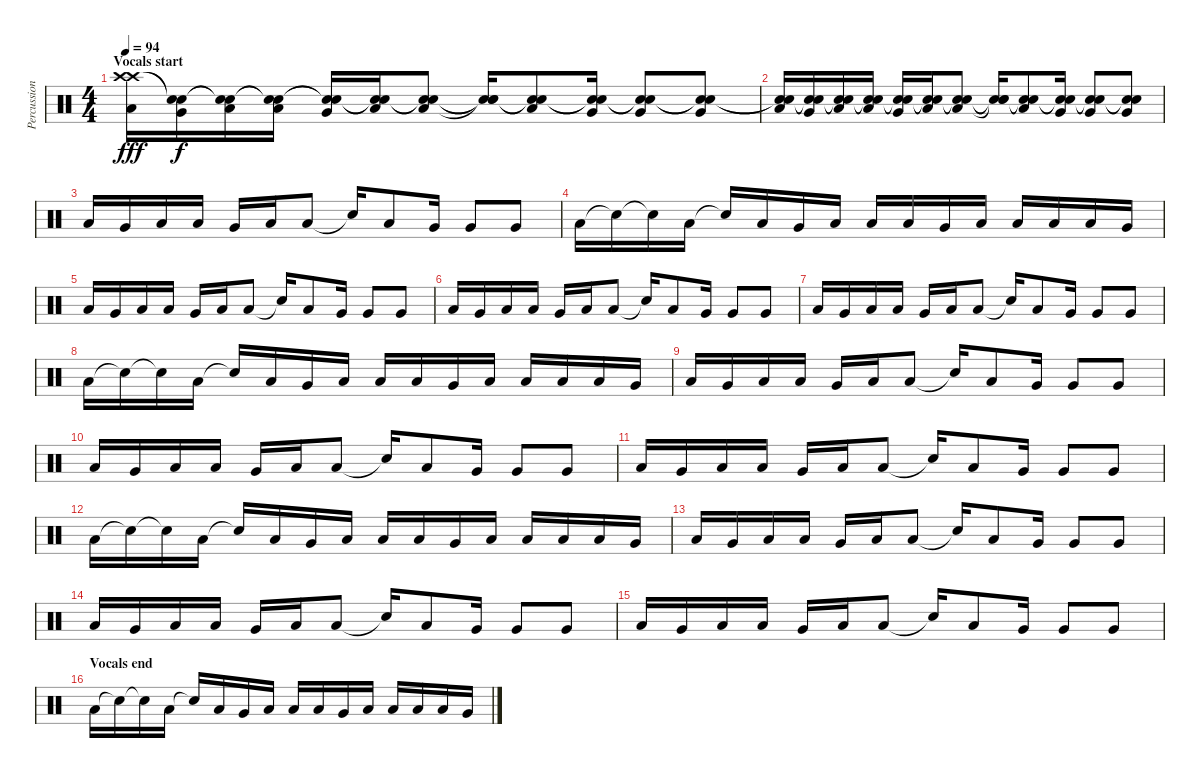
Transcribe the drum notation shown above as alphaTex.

\track ("Percussion" "Percussion") {instrument percussion}
\staff {score}
\articulation defaults
\ts (4 4)
\section ("" "Vocals start")
\tempo 94
\clef neutral
\ks c
("Crash high (hit)" "Crash high (hit)" "Low Floor Tom (hit)").16{dy fff} ("Snare (hit)"{t} "Snare (hit)"{t} "Very Low Tom (hit)").16{dy f} ("Snare (hit)"{t} "Snare (hit)"{t} "Low Floor Tom (hit)").16 ("Snare (hit)"{t} "Snare (hit)"{t} "Low Floor Tom (hit)").16 ("Snare (hit)"{t} "Snare (hit)"{t} "Very Low Tom (hit)").16 ("Snare (hit)"{t} "Snare (hit)"{t} "Low Floor Tom (hit)").16 ("Snare (hit)"{t} "Snare (hit)"{t} "Low Floor Tom (hit)").8 ("Snare (hit)"{t} "Snare (hit)"{t} "Snare (hit)"{t}).16 ("Snare (hit)"{t} "Snare (hit)"{t} "Low Floor Tom (hit)").8 ("Snare (hit)"{t} "Snare (hit)"{t} "Very Low Tom (hit)").16 ("Snare (hit)"{t} "Snare (hit)"{t} "Very Low Tom (hit)").8 ("Snare (hit)"{t} "Snare (hit)"{t} "Very Low Tom (hit)").8 |
("Snare (hit)"{t} "Snare (hit)"{t} "Low Floor Tom (hit)").16 ("Snare (hit)"{t} "Snare (hit)"{t} "Very Low Tom (hit)").16 ("Snare (hit)"{t} "Snare (hit)"{t} "Low Floor Tom (hit)").16 ("Snare (hit)"{t} "Snare (hit)"{t} "Low Floor Tom (hit)").16 ("Snare (hit)"{t} "Snare (hit)"{t} "Very Low Tom (hit)").16 ("Snare (hit)"{t} "Snare (hit)"{t} "Low Floor Tom (hit)").16 ("Snare (hit)"{t} "Snare (hit)"{t} "Low Floor Tom (hit)").8 ("Snare (hit)"{t} "Snare (hit)"{t} "Snare (hit)"{t}).16 ("Snare (hit)"{t} "Snare (hit)"{t} "Low Floor Tom (hit)").8 ("Snare (hit)"{t} "Snare (hit)"{t} "Very Low Tom (hit)").16 ("Snare (hit)"{t} "Snare (hit)"{t} "Very Low Tom (hit)").8 ("Snare (hit)"{t} "Snare (hit)"{t} "Very Low Tom (hit)").8 |
"Low Floor Tom (hit)".16 "Very Low Tom (hit)".16 "Low Floor Tom (hit)".16 "Low Floor Tom (hit)".16 "Very Low Tom (hit)".16 "Low Floor Tom (hit)".16 "Low Floor Tom (hit)".8 "Snare (hit)"{t}.16 "Low Floor Tom (hit)".8 "Very Low Tom (hit)".16 "Very Low Tom (hit)".8 "Very Low Tom (hit)".8 |
"Low Floor Tom (hit)".16 "Snare (hit)"{t}.16 "Snare (hit)"{t}.16 "Low Floor Tom (hit)".16 "Snare (hit)"{t}.16 "Low Floor Tom (hit)".16 "Very Low Tom (hit)".16 "Low Floor Tom (hit)".16 "Low Floor Tom (hit)".16 "Low Tom (hit)".16 "Very Low Tom (hit)".16 "Low Floor Tom (hit)".16 "Low Tom (hit)".16 "Low Floor Tom (hit)".16 "Low Tom (hit)".16 "Very Low Tom (hit)".16 |
"Low Floor Tom (hit)".16 "Very Low Tom (hit)".16 "Low Floor Tom (hit)".16 "Low Floor Tom (hit)".16 "Very Low Tom (hit)".16 "Low Floor Tom (hit)".16 "Low Floor Tom (hit)".8 "Snare (hit)"{t}.16 "Low Floor Tom (hit)".8 "Very Low Tom (hit)".16 "Very Low Tom (hit)".8 "Very Low Tom (hit)".8 |
"Low Floor Tom (hit)".16 "Very Low Tom (hit)".16 "Low Floor Tom (hit)".16 "Low Floor Tom (hit)".16 "Very Low Tom (hit)".16 "Low Floor Tom (hit)".16 "Low Floor Tom (hit)".8 "Snare (hit)"{t}.16 "Low Floor Tom (hit)".8 "Very Low Tom (hit)".16 "Very Low Tom (hit)".8 "Very Low Tom (hit)".8 |
"Low Floor Tom (hit)".16 "Very Low Tom (hit)".16 "Low Floor Tom (hit)".16 "Low Floor Tom (hit)".16 "Very Low Tom (hit)".16 "Low Floor Tom (hit)".16 "Low Floor Tom (hit)".8 "Snare (hit)"{t}.16 "Low Floor Tom (hit)".8 "Very Low Tom (hit)".16 "Very Low Tom (hit)".8 "Very Low Tom (hit)".8 |
"Low Floor Tom (hit)".16 "Snare (hit)"{t}.16 "Snare (hit)"{t}.16 "Low Floor Tom (hit)".16 "Snare (hit)"{t}.16 "Low Floor Tom (hit)".16 "Very Low Tom (hit)".16 "Low Floor Tom (hit)".16 "Low Floor Tom (hit)".16 "Low Tom (hit)".16 "Very Low Tom (hit)".16 "Low Floor Tom (hit)".16 "Low Tom (hit)".16 "Low Floor Tom (hit)".16 "Low Tom (hit)".16 "Very Low Tom (hit)".16 |
"Low Floor Tom (hit)".16 "Very Low Tom (hit)".16 "Low Floor Tom (hit)".16 "Low Floor Tom (hit)".16 "Very Low Tom (hit)".16 "Low Floor Tom (hit)".16 "Low Floor Tom (hit)".8 "Snare (hit)"{t}.16 "Low Floor Tom (hit)".8 "Very Low Tom (hit)".16 "Very Low Tom (hit)".8 "Very Low Tom (hit)".8 |
"Low Floor Tom (hit)".16 "Very Low Tom (hit)".16 "Low Floor Tom (hit)".16 "Low Floor Tom (hit)".16 "Very Low Tom (hit)".16 "Low Floor Tom (hit)".16 "Low Floor Tom (hit)".8 "Snare (hit)"{t}.16 "Low Floor Tom (hit)".8 "Very Low Tom (hit)".16 "Very Low Tom (hit)".8 "Very Low Tom (hit)".8 |
"Low Floor Tom (hit)".16 "Very Low Tom (hit)".16 "Low Floor Tom (hit)".16 "Low Floor Tom (hit)".16 "Very Low Tom (hit)".16 "Low Floor Tom (hit)".16 "Low Floor Tom (hit)".8 "Snare (hit)"{t}.16 "Low Floor Tom (hit)".8 "Very Low Tom (hit)".16 "Very Low Tom (hit)".8 "Very Low Tom (hit)".8 |
"Low Floor Tom (hit)".16 "Snare (hit)"{t}.16 "Snare (hit)"{t}.16 "Low Floor Tom (hit)".16 "Snare (hit)"{t}.16 "Low Floor Tom (hit)".16 "Very Low Tom (hit)".16 "Low Floor Tom (hit)".16 "Low Floor Tom (hit)".16 "Low Tom (hit)".16 "Very Low Tom (hit)".16 "Low Floor Tom (hit)".16 "Low Tom (hit)".16 "Low Floor Tom (hit)".16 "Low Tom (hit)".16 "Very Low Tom (hit)".16 |
"Low Floor Tom (hit)".16 "Very Low Tom (hit)".16 "Low Floor Tom (hit)".16 "Low Floor Tom (hit)".16 "Very Low Tom (hit)".16 "Low Floor Tom (hit)".16 "Low Floor Tom (hit)".8 "Snare (hit)"{t}.16 "Low Floor Tom (hit)".8 "Very Low Tom (hit)".16 "Very Low Tom (hit)".8 "Very Low Tom (hit)".8 |
"Low Floor Tom (hit)".16 "Very Low Tom (hit)".16 "Low Floor Tom (hit)".16 "Low Floor Tom (hit)".16 "Very Low Tom (hit)".16 "Low Floor Tom (hit)".16 "Low Floor Tom (hit)".8 "Snare (hit)"{t}.16 "Low Floor Tom (hit)".8 "Very Low Tom (hit)".16 "Very Low Tom (hit)".8 "Very Low Tom (hit)".8 |
"Low Floor Tom (hit)".16 "Very Low Tom (hit)".16 "Low Floor Tom (hit)".16 "Low Floor Tom (hit)".16 "Very Low Tom (hit)".16 "Low Floor Tom (hit)".16 "Low Floor Tom (hit)".8 "Snare (hit)"{t}.16 "Low Floor Tom (hit)".8 "Very Low Tom (hit)".16 "Very Low Tom (hit)".8 "Very Low Tom (hit)".8 |
\section ("" "Vocals end")
"Low Floor Tom (hit)".16 "Snare (hit)"{t}.16 "Snare (hit)"{t}.16 "Low Floor Tom (hit)".16 "Snare (hit)"{t}.16 "Low Floor Tom (hit)".16 "Very Low Tom (hit)".16 "Low Floor Tom (hit)".16 "Low Floor Tom (hit)".16 "Low Tom (hit)".16 "Very Low Tom (hit)".16 "Low Floor Tom (hit)".16 "Low Tom (hit)".16 "Low Floor Tom (hit)".16 "Low Tom (hit)".16 "Very Low Tom (hit)".16
